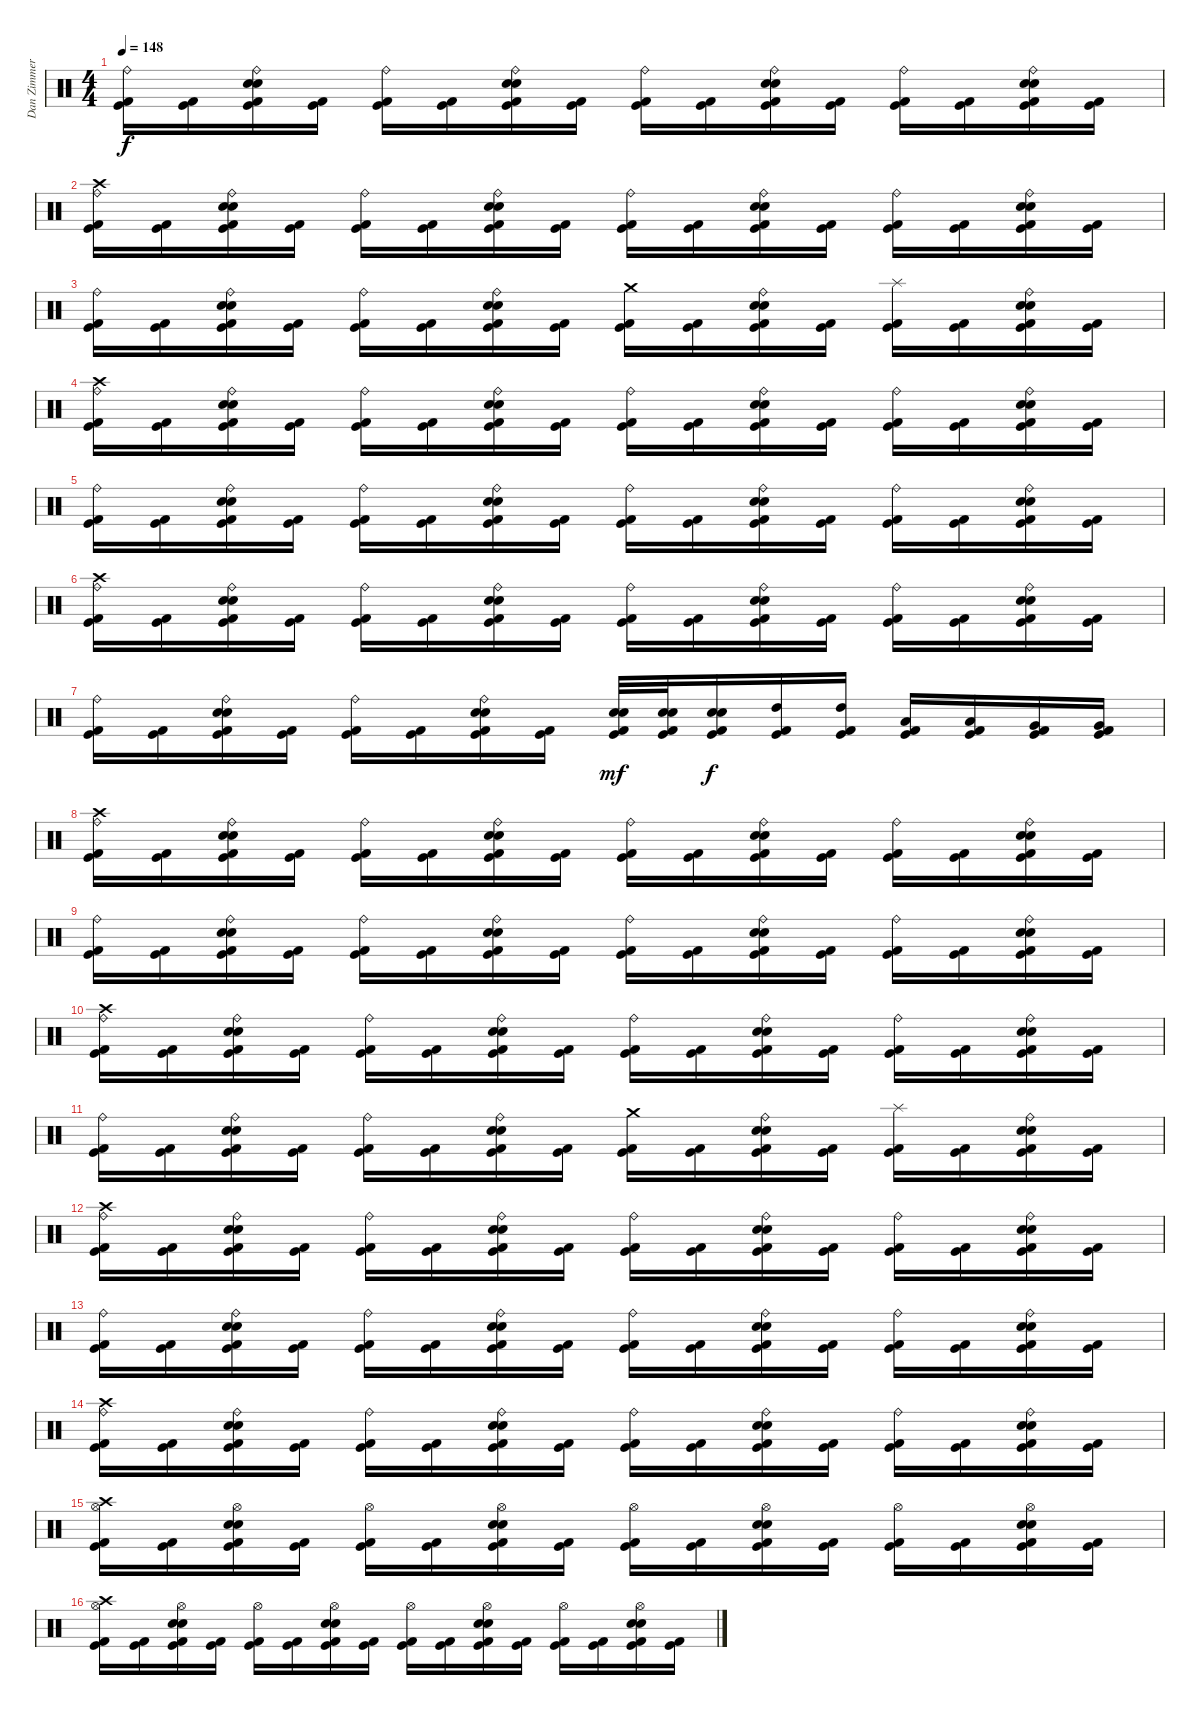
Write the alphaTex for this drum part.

\track ("Dan Zimmerman<Drum>" "Dan Zimmer") {instrument percussion}
\staff {score}
\articulation defaults
\ts (4 4)
\tempo 148
\clef neutral
\ks c
("Ride (bell)" "Kick (hit) 2" "Kick (hit)").16{dy f} ("Kick (hit) 2" "Kick (hit)").16 ("Ride (bell)" "Snare (hit) 2" "Electric Snare (hit)" "Kick (hit) 2" "Kick (hit)").16 ("Kick (hit) 2" "Kick (hit)").16 ("Ride (bell)" "Kick (hit) 2" "Kick (hit)").16 ("Kick (hit) 2" "Kick (hit)").16 ("Ride (bell)" "Snare (hit) 2" "Electric Snare (hit)" "Kick (hit) 2" "Kick (hit)").16 ("Kick (hit) 2" "Kick (hit)").16 ("Ride (bell)" "Kick (hit) 2" "Kick (hit)").16 ("Kick (hit) 2" "Kick (hit)").16 ("Ride (bell)" "Snare (hit) 2" "Electric Snare (hit)" "Kick (hit) 2" "Kick (hit)").16 ("Kick (hit) 2" "Kick (hit)").16 ("Ride (bell)" "Kick (hit) 2" "Kick (hit)").16 ("Kick (hit) 2" "Kick (hit)").16 ("Ride (bell)" "Snare (hit) 2" "Electric Snare (hit)" "Kick (hit) 2" "Kick (hit)").16 ("Kick (hit) 2" "Kick (hit)").16 |
("Ride (bell)" "Crash high (hit)" "Kick (hit) 2" "Kick (hit)").16 ("Kick (hit) 2" "Kick (hit)").16 ("Ride (bell)" "Snare (hit) 2" "Electric Snare (hit)" "Kick (hit) 2" "Kick (hit)").16 ("Kick (hit) 2" "Kick (hit)").16 ("Ride (bell)" "Kick (hit) 2" "Kick (hit)").16 ("Kick (hit) 2" "Kick (hit)").16 ("Ride (bell)" "Snare (hit) 2" "Electric Snare (hit)" "Kick (hit) 2" "Kick (hit)").16 ("Kick (hit) 2" "Kick (hit)").16 ("Ride (bell)" "Kick (hit) 2" "Kick (hit)").16 ("Kick (hit) 2" "Kick (hit)").16 ("Ride (bell)" "Snare (hit) 2" "Electric Snare (hit)" "Kick (hit) 2" "Kick (hit)").16 ("Kick (hit) 2" "Kick (hit)").16 ("Ride (bell)" "Kick (hit) 2" "Kick (hit)").16 ("Kick (hit) 2" "Kick (hit)").16 ("Ride (bell)" "Snare (hit) 2" "Electric Snare (hit)" "Kick (hit) 2" "Kick (hit)").16 ("Kick (hit) 2" "Kick (hit)").16 |
("Ride (bell)" "Kick (hit) 2" "Kick (hit)").16 ("Kick (hit) 2" "Kick (hit)").16 ("Ride (bell)" "Snare (hit) 2" "Electric Snare (hit)" "Kick (hit) 2" "Kick (hit)").16 ("Kick (hit) 2" "Kick (hit)").16 ("Ride (bell)" "Kick (hit) 2" "Kick (hit)").16 ("Kick (hit) 2" "Kick (hit)").16 ("Ride (bell)" "Snare (hit) 2" "Electric Snare (hit)" "Kick (hit) 2" "Kick (hit)").16 ("Kick (hit) 2" "Kick (hit)").16 ("Crash medium (hit)" "Kick (hit) 2" "Kick (hit)").16 ("Kick (hit) 2" "Kick (hit)").16 ("Ride (bell)" "Snare (hit) 2" "Electric Snare (hit)" "Kick (hit) 2" "Kick (hit)").16 ("Kick (hit) 2" "Kick (hit)").16 ("Splash (hit)" "Kick (hit) 2" "Kick (hit)").16 ("Kick (hit) 2" "Kick (hit)").16 ("Ride (bell)" "Snare (hit) 2" "Electric Snare (hit)" "Kick (hit) 2" "Kick (hit)").16 ("Kick (hit) 2" "Kick (hit)").16 |
("Ride (bell)" "Crash high (hit)" "Kick (hit) 2" "Kick (hit)").16 ("Kick (hit) 2" "Kick (hit)").16 ("Ride (bell)" "Snare (hit) 2" "Electric Snare (hit)" "Kick (hit) 2" "Kick (hit)").16 ("Kick (hit) 2" "Kick (hit)").16 ("Ride (bell)" "Kick (hit) 2" "Kick (hit)").16 ("Kick (hit) 2" "Kick (hit)").16 ("Ride (bell)" "Snare (hit) 2" "Electric Snare (hit)" "Kick (hit) 2" "Kick (hit)").16 ("Kick (hit) 2" "Kick (hit)").16 ("Ride (bell)" "Kick (hit) 2" "Kick (hit)").16 ("Kick (hit) 2" "Kick (hit)").16 ("Ride (bell)" "Snare (hit) 2" "Electric Snare (hit)" "Kick (hit) 2" "Kick (hit)").16 ("Kick (hit) 2" "Kick (hit)").16 ("Ride (bell)" "Kick (hit) 2" "Kick (hit)").16 ("Kick (hit) 2" "Kick (hit)").16 ("Ride (bell)" "Snare (hit) 2" "Electric Snare (hit)" "Kick (hit) 2" "Kick (hit)").16 ("Kick (hit) 2" "Kick (hit)").16 |
("Ride (bell)" "Kick (hit) 2" "Kick (hit)").16 ("Kick (hit) 2" "Kick (hit)").16 ("Ride (bell)" "Snare (hit) 2" "Electric Snare (hit)" "Kick (hit) 2" "Kick (hit)").16 ("Kick (hit) 2" "Kick (hit)").16 ("Ride (bell)" "Kick (hit) 2" "Kick (hit)").16 ("Kick (hit) 2" "Kick (hit)").16 ("Ride (bell)" "Snare (hit) 2" "Electric Snare (hit)" "Kick (hit) 2" "Kick (hit)").16 ("Kick (hit) 2" "Kick (hit)").16 ("Ride (bell)" "Kick (hit) 2" "Kick (hit)").16 ("Kick (hit) 2" "Kick (hit)").16 ("Ride (bell)" "Snare (hit) 2" "Electric Snare (hit)" "Kick (hit) 2" "Kick (hit)").16 ("Kick (hit) 2" "Kick (hit)").16 ("Ride (bell)" "Kick (hit) 2" "Kick (hit)").16 ("Kick (hit) 2" "Kick (hit)").16 ("Ride (bell)" "Snare (hit) 2" "Electric Snare (hit)" "Kick (hit) 2" "Kick (hit)").16 ("Kick (hit) 2" "Kick (hit)").16 |
("Ride (bell)" "Crash high (hit)" "Kick (hit) 2" "Kick (hit)").16 ("Kick (hit) 2" "Kick (hit)").16 ("Ride (bell)" "Snare (hit) 2" "Electric Snare (hit)" "Kick (hit) 2" "Kick (hit)").16 ("Kick (hit) 2" "Kick (hit)").16 ("Ride (bell)" "Kick (hit) 2" "Kick (hit)").16 ("Kick (hit) 2" "Kick (hit)").16 ("Ride (bell)" "Snare (hit) 2" "Electric Snare (hit)" "Kick (hit) 2" "Kick (hit)").16 ("Kick (hit) 2" "Kick (hit)").16 ("Ride (bell)" "Kick (hit) 2" "Kick (hit)").16 ("Kick (hit) 2" "Kick (hit)").16 ("Ride (bell)" "Snare (hit) 2" "Electric Snare (hit)" "Kick (hit) 2" "Kick (hit)").16 ("Kick (hit) 2" "Kick (hit)").16 ("Ride (bell)" "Kick (hit) 2" "Kick (hit)").16 ("Kick (hit) 2" "Kick (hit)").16 ("Ride (bell)" "Snare (hit) 2" "Electric Snare (hit)" "Kick (hit) 2" "Kick (hit)").16 ("Kick (hit) 2" "Kick (hit)").16 |
("Ride (bell)" "Kick (hit) 2" "Kick (hit)").16 ("Kick (hit) 2" "Kick (hit)").16 ("Ride (bell)" "Snare (hit) 2" "Electric Snare (hit)" "Kick (hit) 2" "Kick (hit)").16 ("Kick (hit) 2" "Kick (hit)").16 ("Ride (bell)" "Kick (hit) 2" "Kick (hit)").16 ("Kick (hit) 2" "Kick (hit)").16 ("Ride (bell)" "Snare (hit) 2" "Electric Snare (hit)" "Kick (hit) 2" "Kick (hit)").16 ("Kick (hit) 2" "Kick (hit)").16 ("Snare (hit) 2" "Electric Snare (hit)" "Kick (hit) 2" "Kick (hit)").32{dy mf} ("Snare (hit) 2" "Electric Snare (hit)" "Kick (hit) 2" "Kick (hit)").32 ("Electric Snare (hit)" "Snare (hit) 2" "Kick (hit) 2" "Kick (hit)").16{dy f} ("High Tom (hit)" "Kick (hit) 2" "Kick (hit)").16 ("High Tom (hit)" "Kick (hit) 2" "Kick (hit)").16 ("Low Tom (hit)" "Kick (hit) 2" "Kick (hit)").16 ("Low Tom (hit)" "Kick (hit) 2" "Kick (hit)").16 ("Very Low Tom (hit)" "Kick (hit) 2" "Kick (hit)").16 ("Very Low Tom (hit)" "Kick (hit) 2" "Kick (hit)").16 |
("Ride (bell)" "Crash high (hit)" "Kick (hit) 2" "Kick (hit)").16 ("Kick (hit) 2" "Kick (hit)").16 ("Ride (bell)" "Snare (hit) 2" "Electric Snare (hit)" "Kick (hit) 2" "Kick (hit)").16 ("Kick (hit) 2" "Kick (hit)").16 ("Ride (bell)" "Kick (hit) 2" "Kick (hit)").16 ("Kick (hit) 2" "Kick (hit)").16 ("Ride (bell)" "Snare (hit) 2" "Electric Snare (hit)" "Kick (hit) 2" "Kick (hit)").16 ("Kick (hit) 2" "Kick (hit)").16 ("Ride (bell)" "Kick (hit) 2" "Kick (hit)").16 ("Kick (hit) 2" "Kick (hit)").16 ("Ride (bell)" "Snare (hit) 2" "Electric Snare (hit)" "Kick (hit) 2" "Kick (hit)").16 ("Kick (hit) 2" "Kick (hit)").16 ("Ride (bell)" "Kick (hit) 2" "Kick (hit)").16 ("Kick (hit) 2" "Kick (hit)").16 ("Ride (bell)" "Snare (hit) 2" "Electric Snare (hit)" "Kick (hit) 2" "Kick (hit)").16 ("Kick (hit) 2" "Kick (hit)").16 |
("Ride (bell)" "Kick (hit) 2" "Kick (hit)").16 ("Kick (hit) 2" "Kick (hit)").16 ("Ride (bell)" "Snare (hit) 2" "Electric Snare (hit)" "Kick (hit) 2" "Kick (hit)").16 ("Kick (hit) 2" "Kick (hit)").16 ("Ride (bell)" "Kick (hit) 2" "Kick (hit)").16 ("Kick (hit) 2" "Kick (hit)").16 ("Ride (bell)" "Snare (hit) 2" "Electric Snare (hit)" "Kick (hit) 2" "Kick (hit)").16 ("Kick (hit) 2" "Kick (hit)").16 ("Ride (bell)" "Kick (hit) 2" "Kick (hit)").16 ("Kick (hit) 2" "Kick (hit)").16 ("Ride (bell)" "Snare (hit) 2" "Electric Snare (hit)" "Kick (hit) 2" "Kick (hit)").16 ("Kick (hit) 2" "Kick (hit)").16 ("Ride (bell)" "Kick (hit) 2" "Kick (hit)").16 ("Kick (hit) 2" "Kick (hit)").16 ("Ride (bell)" "Snare (hit) 2" "Electric Snare (hit)" "Kick (hit) 2" "Kick (hit)").16 ("Kick (hit) 2" "Kick (hit)").16 |
("Ride (bell)" "Crash high (hit)" "Kick (hit) 2" "Kick (hit)").16 ("Kick (hit) 2" "Kick (hit)").16 ("Ride (bell)" "Snare (hit) 2" "Electric Snare (hit)" "Kick (hit) 2" "Kick (hit)").16 ("Kick (hit) 2" "Kick (hit)").16 ("Ride (bell)" "Kick (hit) 2" "Kick (hit)").16 ("Kick (hit) 2" "Kick (hit)").16 ("Ride (bell)" "Snare (hit) 2" "Electric Snare (hit)" "Kick (hit) 2" "Kick (hit)").16 ("Kick (hit) 2" "Kick (hit)").16 ("Ride (bell)" "Kick (hit) 2" "Kick (hit)").16 ("Kick (hit) 2" "Kick (hit)").16 ("Ride (bell)" "Snare (hit) 2" "Electric Snare (hit)" "Kick (hit) 2" "Kick (hit)").16 ("Kick (hit) 2" "Kick (hit)").16 ("Ride (bell)" "Kick (hit) 2" "Kick (hit)").16 ("Kick (hit) 2" "Kick (hit)").16 ("Ride (bell)" "Snare (hit) 2" "Electric Snare (hit)" "Kick (hit) 2" "Kick (hit)").16 ("Kick (hit) 2" "Kick (hit)").16 |
("Ride (bell)" "Kick (hit) 2" "Kick (hit)").16 ("Kick (hit) 2" "Kick (hit)").16 ("Ride (bell)" "Snare (hit) 2" "Electric Snare (hit)" "Kick (hit) 2" "Kick (hit)").16 ("Kick (hit) 2" "Kick (hit)").16 ("Ride (bell)" "Kick (hit) 2" "Kick (hit)").16 ("Kick (hit) 2" "Kick (hit)").16 ("Ride (bell)" "Snare (hit) 2" "Electric Snare (hit)" "Kick (hit) 2" "Kick (hit)").16 ("Kick (hit) 2" "Kick (hit)").16 ("Crash medium (hit)" "Kick (hit) 2" "Kick (hit)").16 ("Kick (hit) 2" "Kick (hit)").16 ("Ride (bell)" "Snare (hit) 2" "Electric Snare (hit)" "Kick (hit) 2" "Kick (hit)").16 ("Kick (hit) 2" "Kick (hit)").16 ("Splash (hit)" "Kick (hit) 2" "Kick (hit)").16 ("Kick (hit) 2" "Kick (hit)").16 ("Ride (bell)" "Snare (hit) 2" "Electric Snare (hit)" "Kick (hit) 2" "Kick (hit)").16 ("Kick (hit) 2" "Kick (hit)").16 |
("Ride (bell)" "Crash high (hit)" "Kick (hit) 2" "Kick (hit)").16 ("Kick (hit) 2" "Kick (hit)").16 ("Ride (bell)" "Snare (hit) 2" "Electric Snare (hit)" "Kick (hit) 2" "Kick (hit)").16 ("Kick (hit) 2" "Kick (hit)").16 ("Ride (bell)" "Kick (hit) 2" "Kick (hit)").16 ("Kick (hit) 2" "Kick (hit)").16 ("Ride (bell)" "Snare (hit) 2" "Electric Snare (hit)" "Kick (hit) 2" "Kick (hit)").16 ("Kick (hit) 2" "Kick (hit)").16 ("Ride (bell)" "Kick (hit) 2" "Kick (hit)").16 ("Kick (hit) 2" "Kick (hit)").16 ("Ride (bell)" "Snare (hit) 2" "Electric Snare (hit)" "Kick (hit) 2" "Kick (hit)").16 ("Kick (hit) 2" "Kick (hit)").16 ("Ride (bell)" "Kick (hit) 2" "Kick (hit)").16 ("Kick (hit) 2" "Kick (hit)").16 ("Ride (bell)" "Snare (hit) 2" "Electric Snare (hit)" "Kick (hit) 2" "Kick (hit)").16 ("Kick (hit) 2" "Kick (hit)").16 |
("Ride (bell)" "Kick (hit) 2" "Kick (hit)").16 ("Kick (hit) 2" "Kick (hit)").16 ("Ride (bell)" "Snare (hit) 2" "Electric Snare (hit)" "Kick (hit) 2" "Kick (hit)").16 ("Kick (hit) 2" "Kick (hit)").16 ("Ride (bell)" "Kick (hit) 2" "Kick (hit)").16 ("Kick (hit) 2" "Kick (hit)").16 ("Ride (bell)" "Snare (hit) 2" "Electric Snare (hit)" "Kick (hit) 2" "Kick (hit)").16 ("Kick (hit) 2" "Kick (hit)").16 ("Ride (bell)" "Kick (hit) 2" "Kick (hit)").16 ("Kick (hit) 2" "Kick (hit)").16 ("Ride (bell)" "Snare (hit) 2" "Electric Snare (hit)" "Kick (hit) 2" "Kick (hit)").16 ("Kick (hit) 2" "Kick (hit)").16 ("Ride (bell)" "Kick (hit) 2" "Kick (hit)").16 ("Kick (hit) 2" "Kick (hit)").16 ("Ride (bell)" "Snare (hit) 2" "Electric Snare (hit)" "Kick (hit) 2" "Kick (hit)").16 ("Kick (hit) 2" "Kick (hit)").16 |
("Ride (bell)" "Crash high (hit)" "Kick (hit) 2" "Kick (hit)").16 ("Kick (hit) 2" "Kick (hit)").16 ("Ride (bell)" "Snare (hit) 2" "Electric Snare (hit)" "Kick (hit) 2" "Kick (hit)").16 ("Kick (hit) 2" "Kick (hit)").16 ("Ride (bell)" "Kick (hit) 2" "Kick (hit)").16 ("Kick (hit) 2" "Kick (hit)").16 ("Ride (bell)" "Snare (hit) 2" "Electric Snare (hit)" "Kick (hit) 2" "Kick (hit)").16 ("Kick (hit) 2" "Kick (hit)").16 ("Ride (bell)" "Kick (hit) 2" "Kick (hit)").16 ("Kick (hit) 2" "Kick (hit)").16 ("Ride (bell)" "Snare (hit) 2" "Electric Snare (hit)" "Kick (hit) 2" "Kick (hit)").16 ("Kick (hit) 2" "Kick (hit)").16 ("Ride (bell)" "Kick (hit) 2" "Kick (hit)").16 ("Kick (hit) 2" "Kick (hit)").16 ("Ride (bell)" "Snare (hit) 2" "Electric Snare (hit)" "Kick (hit) 2" "Kick (hit)").16 ("Kick (hit) 2" "Kick (hit)").16 |
("Hi-Hat (open)" "Crash high (hit)" "Kick (hit) 2" "Kick (hit)").16 ("Kick (hit) 2" "Kick (hit)").16 ("Hi-Hat (open)" "Snare (hit) 2" "Electric Snare (hit)" "Kick (hit) 2" "Kick (hit)").16 ("Kick (hit) 2" "Kick (hit)").16 ("Hi-Hat (open)" "Kick (hit) 2" "Kick (hit)").16 ("Kick (hit) 2" "Kick (hit)").16 ("Hi-Hat (open)" "Snare (hit) 2" "Electric Snare (hit)" "Kick (hit) 2" "Kick (hit)").16 ("Kick (hit) 2" "Kick (hit)").16 ("Hi-Hat (open)" "Kick (hit) 2" "Kick (hit)").16 ("Kick (hit) 2" "Kick (hit)").16 ("Hi-Hat (open)" "Snare (hit) 2" "Electric Snare (hit)" "Kick (hit) 2" "Kick (hit)").16 ("Kick (hit) 2" "Kick (hit)").16 ("Hi-Hat (open)" "Kick (hit) 2" "Kick (hit)").16 ("Kick (hit) 2" "Kick (hit)").16 ("Hi-Hat (open)" "Snare (hit) 2" "Electric Snare (hit)" "Kick (hit) 2" "Kick (hit)").16 ("Kick (hit) 2" "Kick (hit)").16 |
("Hi-Hat (open)" "Crash high (hit)" "Kick (hit) 2" "Kick (hit)").16 ("Kick (hit) 2" "Kick (hit)").16 ("Hi-Hat (open)" "Snare (hit) 2" "Electric Snare (hit)" "Kick (hit) 2" "Kick (hit)").16 ("Kick (hit) 2" "Kick (hit)").16 ("Hi-Hat (open)" "Kick (hit) 2" "Kick (hit)").16 ("Kick (hit) 2" "Kick (hit)").16 ("Hi-Hat (open)" "Snare (hit) 2" "Electric Snare (hit)" "Kick (hit) 2" "Kick (hit)").16 ("Kick (hit) 2" "Kick (hit)").16 ("Hi-Hat (open)" "Kick (hit) 2" "Kick (hit)").16 ("Kick (hit) 2" "Kick (hit)").16 ("Hi-Hat (open)" "Snare (hit) 2" "Electric Snare (hit)" "Kick (hit) 2" "Kick (hit)").16 ("Kick (hit) 2" "Kick (hit)").16 ("Hi-Hat (open)" "Kick (hit) 2" "Kick (hit)").16 ("Kick (hit) 2" "Kick (hit)").16 ("Hi-Hat (open)" "Snare (hit) 2" "Electric Snare (hit)" "Kick (hit) 2" "Kick (hit)").16 ("Kick (hit) 2" "Kick (hit)").16
